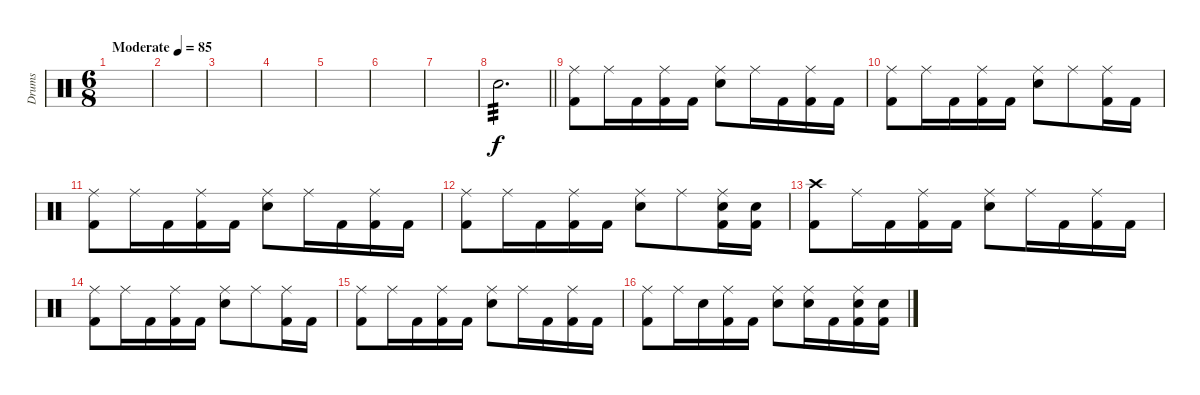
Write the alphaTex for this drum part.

\track ("Drums" "Drums") {instrument percussion}
\staff {score}
\articulation defaults
\ts (6 8)
\tempo (85 "Moderate")
\clef neutral
\ks c
|
|
|
|
|
|
|
\barLineRight lightlight "Snare (hit) 2".2{d tp 3 volume 14}
|
("Ride (middle)" "Kick (hit) 2").8 "Ride (middle)".16 "Kick (hit) 2".16 ("Ride (middle)" "Kick (hit) 2").16 "Kick (hit) 2".16 ("Ride (middle)" "Snare (hit) 2").8 "Ride (middle)".16 "Kick (hit) 2".16 ("Ride (middle)" "Kick (hit) 2").16 "Kick (hit) 2".16 |
("Ride (middle)" "Kick (hit) 2").8 "Ride (middle)".16 "Kick (hit) 2".16 ("Ride (middle)" "Kick (hit) 2").16 "Kick (hit) 2".16 ("Ride (middle)" "Snare (hit) 2").8 "Ride (middle)".8 ("Ride (middle)" "Kick (hit) 2").16 "Kick (hit) 2".16 |
("Ride (middle)" "Kick (hit) 2").8 "Ride (middle)".16 "Kick (hit) 2".16 ("Ride (middle)" "Kick (hit) 2").16 "Kick (hit) 2".16 ("Ride (middle)" "Snare (hit) 2").8 "Ride (middle)".16 "Kick (hit) 2".16 ("Ride (middle)" "Kick (hit) 2").16 "Kick (hit) 2".16 |
("Ride (middle)" "Kick (hit) 2").8 "Ride (middle)".16 "Kick (hit) 2".16 ("Ride (middle)" "Kick (hit) 2").16 "Kick (hit) 2".16 ("Ride (middle)" "Snare (hit) 2").8 "Ride (middle)".8 ("Ride (middle)" "Snare (hit) 2" "Kick (hit) 2").16 ("Snare (hit) 2" "Kick (hit) 2").16 |
("Crash high (hit)" "Kick (hit) 2").8 "Ride (middle)".16 "Kick (hit) 2".16 ("Ride (middle)" "Kick (hit) 2").16 "Kick (hit) 2".16 ("Ride (middle)" "Snare (hit) 2").8 "Ride (middle)".16 "Kick (hit) 2".16 ("Ride (middle)" "Kick (hit) 2").16 "Kick (hit) 2".16 |
("Ride (middle)" "Kick (hit) 2").8 "Ride (middle)".16 "Kick (hit) 2".16 ("Ride (middle)" "Kick (hit) 2").16 "Kick (hit) 2".16 ("Ride (middle)" "Snare (hit) 2").8 "Ride (middle)".8 ("Ride (middle)" "Kick (hit) 2").16 "Kick (hit) 2".16 |
("Ride (middle)" "Kick (hit) 2").8 "Ride (middle)".16 "Kick (hit) 2".16 ("Ride (middle)" "Kick (hit) 2").16 "Kick (hit) 2".16 ("Ride (middle)" "Snare (hit) 2").8 "Ride (middle)".16 "Kick (hit) 2".16 ("Ride (middle)" "Kick (hit) 2").16 "Kick (hit) 2".16 |
("Ride (middle)" "Kick (hit) 2").8 "Ride (middle)".16 "Snare (hit) 2".16 ("Ride (middle)" "Kick (hit) 2").16 "Kick (hit) 2".16 ("Ride (middle)" "Snare (hit) 2").8 ("Ride (middle)" "Snare (hit) 2").16 "Kick (hit) 2".16 ("Ride (middle)" "Snare (hit) 2" "Kick (hit) 2").16 ("Snare (hit) 2" "Kick (hit) 2").16
